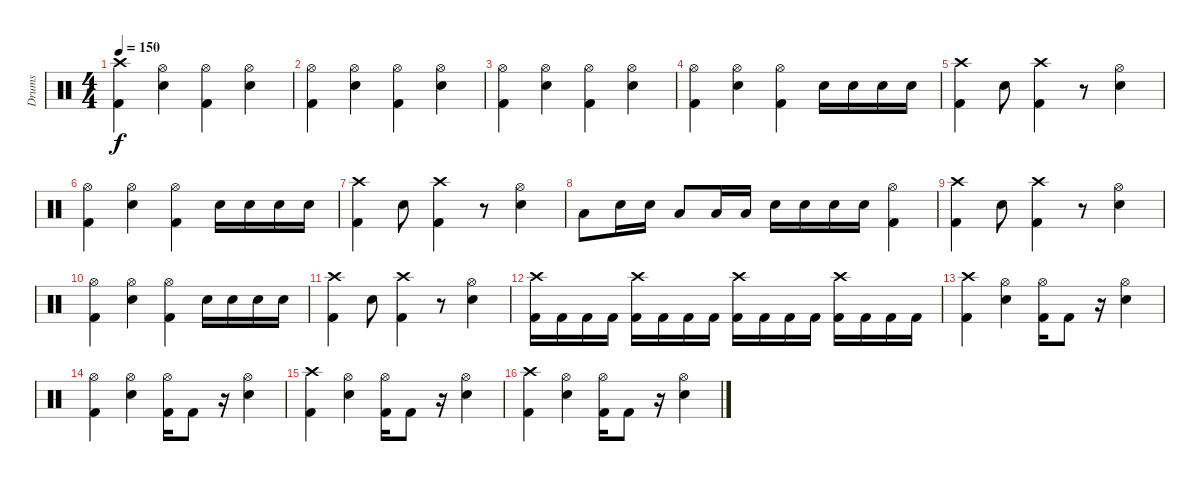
\track ("Drums" "Drums") {instrument percussion}
\staff {score}
\articulation defaults
\ts (4 4)
\tempo 150
\clef neutral
\ks c
("Crash high (hit)" "Kick (hit) 2").4{dy f} ("Hi-Hat (open)" "Snare (hit) 2").4 ("Hi-Hat (open)" "Kick (hit) 2").4 ("Hi-Hat (open)" "Snare (hit) 2").4 |
("Hi-Hat (open)" "Kick (hit) 2").4 ("Hi-Hat (open)" "Snare (hit) 2").4 ("Hi-Hat (open)" "Kick (hit) 2").4 ("Hi-Hat (open)" "Snare (hit) 2").4 |
("Hi-Hat (open)" "Kick (hit) 2").4 ("Hi-Hat (open)" "Snare (hit) 2").4 ("Hi-Hat (open)" "Kick (hit) 2").4 ("Hi-Hat (open)" "Snare (hit) 2").4 |
("Hi-Hat (open)" "Kick (hit) 2").4 ("Hi-Hat (open)" "Snare (hit) 2").4 ("Hi-Hat (open)" "Kick (hit) 2").4 "Snare (hit) 2".16 "Snare (hit) 2".16 "Snare (hit) 2".16 "Snare (hit) 2".16 |
("Crash high (hit)" "Kick (hit) 2").4 "Snare (hit) 2".8 ("Crash high (hit)" "Kick (hit) 2").4 r.8 ("Hi-Hat (open)" "Snare (hit) 2").4 |
("Hi-Hat (open)" "Kick (hit) 2").4 ("Hi-Hat (open)" "Snare (hit) 2").4 ("Hi-Hat (open)" "Kick (hit) 2").4 "Snare (hit) 2".16 "Snare (hit) 2".16 "Snare (hit) 2".16 "Snare (hit) 2".16 |
("Crash high (hit)" "Kick (hit) 2").4 "Snare (hit) 2".8 ("Crash high (hit)" "Kick (hit) 2").4 r.8 ("Hi-Hat (open)" "Snare (hit) 2").4 |
"Low Tom (hit)".8 "Snare (hit) 2".16 "Snare (hit) 2".16 "Low Tom (hit)".8 "Low Tom (hit)".16 "Low Tom (hit)".16 "Snare (hit) 2".16 "Snare (hit) 2".16 "Snare (hit) 2".16 "Snare (hit) 2".16 ("Hi-Hat (open)" "Kick (hit) 2").4 |
("Crash high (hit)" "Kick (hit) 2").4 "Snare (hit) 2".8 ("Crash high (hit)" "Kick (hit) 2").4 r.8 ("Hi-Hat (open)" "Snare (hit) 2").4 |
("Hi-Hat (open)" "Kick (hit) 2").4 ("Hi-Hat (open)" "Snare (hit) 2").4 ("Hi-Hat (open)" "Kick (hit) 2").4 "Snare (hit) 2".16 "Snare (hit) 2".16 "Snare (hit) 2".16 "Snare (hit) 2".16 |
("Crash high (hit)" "Kick (hit) 2").4 "Snare (hit) 2".8 ("Crash high (hit)" "Kick (hit) 2").4 r.8 ("Hi-Hat (open)" "Snare (hit) 2").4 |
("Crash high (hit)" "Kick (hit) 2").16 "Kick (hit) 2".16 "Kick (hit) 2".16 "Kick (hit) 2".16 ("Crash high (hit)" "Kick (hit) 2").16 "Kick (hit) 2".16 "Kick (hit) 2".16 "Kick (hit) 2".16 ("Crash high (hit)" "Kick (hit) 2").16 "Kick (hit) 2".16 "Kick (hit) 2".16 "Kick (hit) 2".16 ("Crash high (hit)" "Kick (hit) 2").16 "Kick (hit) 2".16 "Kick (hit) 2".16 "Kick (hit) 2".16 |
("Crash high (hit)" "Kick (hit) 2").4 ("Hi-Hat (open)" "Snare (hit) 2").4 ("Hi-Hat (open)" "Kick (hit) 2").16 "Kick (hit) 2".8 r.16 ("Hi-Hat (open)" "Snare (hit) 2").4 |
("Hi-Hat (open)" "Kick (hit) 2").4 ("Hi-Hat (open)" "Snare (hit) 2").4 ("Hi-Hat (open)" "Kick (hit) 2").16 "Kick (hit) 2".8 r.16 ("Hi-Hat (open)" "Snare (hit) 2").4 |
("Crash high (hit)" "Kick (hit) 2").4 ("Hi-Hat (open)" "Snare (hit) 2").4 ("Hi-Hat (open)" "Kick (hit) 2").16 "Kick (hit) 2".8 r.16 ("Hi-Hat (open)" "Snare (hit) 2").4 |
("Crash high (hit)" "Kick (hit) 2").4 ("Hi-Hat (open)" "Snare (hit) 2").4 ("Hi-Hat (open)" "Kick (hit) 2").16 "Kick (hit) 2".8 r.16 ("Hi-Hat (open)" "Snare (hit) 2").4
